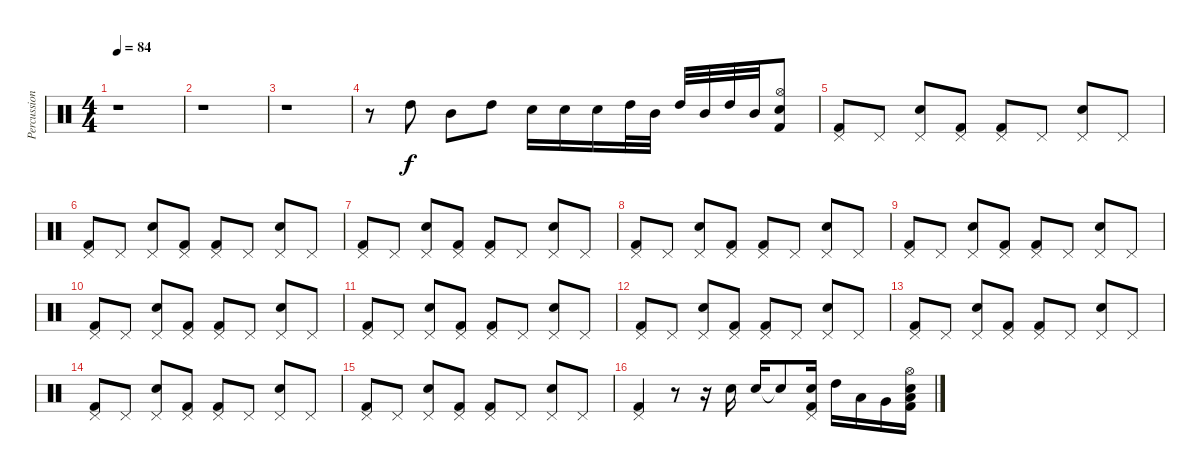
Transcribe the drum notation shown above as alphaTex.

\track ("Percussion" "Percussion") {instrument percussion}
\staff {score}
\articulation defaults
\ts (4 4)
\tempo 84
\clef neutral
\ks c
r.1{dy f} |
r.1 |
r.1 |
r.8 "High Tom (hit)".8 "Mid Tom (hit)".8 "High Tom (hit)".8 "Snare (hit) 2".16 "Snare (hit) 2".16 "Snare (hit) 2".16 "High Tom (hit)".32 "Mid Tom (hit)".32 "High Tom (hit)".32 "Mid Tom (hit)".32 "High Tom (hit)".32 "Mid Tom (hit)".32 ("Hi-Hat (open)" "Snare (hit) 2" "Kick (hit) 2").8 |
("Pedal Hi-Hat (hit)" "Kick (hit) 2").8 "Pedal Hi-Hat (hit)".8 ("Pedal Hi-Hat (hit)" "Snare (hit) 2").8 ("Pedal Hi-Hat (hit)" "Kick (hit) 2").8 ("Pedal Hi-Hat (hit)" "Kick (hit) 2").8 "Pedal Hi-Hat (hit)".8 ("Pedal Hi-Hat (hit)" "Snare (hit) 2").8 "Pedal Hi-Hat (hit)".8 |
("Pedal Hi-Hat (hit)" "Kick (hit) 2").8 "Pedal Hi-Hat (hit)".8 ("Pedal Hi-Hat (hit)" "Snare (hit) 2").8 ("Pedal Hi-Hat (hit)" "Kick (hit) 2").8 ("Pedal Hi-Hat (hit)" "Kick (hit) 2").8 "Pedal Hi-Hat (hit)".8 ("Pedal Hi-Hat (hit)" "Snare (hit) 2").8 "Pedal Hi-Hat (hit)".8 |
("Pedal Hi-Hat (hit)" "Kick (hit) 2").8 "Pedal Hi-Hat (hit)".8 ("Pedal Hi-Hat (hit)" "Snare (hit) 2").8 ("Pedal Hi-Hat (hit)" "Kick (hit) 2").8 ("Pedal Hi-Hat (hit)" "Kick (hit) 2").8 "Pedal Hi-Hat (hit)".8 ("Pedal Hi-Hat (hit)" "Snare (hit) 2").8 "Pedal Hi-Hat (hit)".8 |
("Pedal Hi-Hat (hit)" "Kick (hit) 2").8 "Pedal Hi-Hat (hit)".8 ("Pedal Hi-Hat (hit)" "Snare (hit) 2").8 ("Pedal Hi-Hat (hit)" "Kick (hit) 2").8 ("Pedal Hi-Hat (hit)" "Kick (hit) 2").8 "Pedal Hi-Hat (hit)".8 ("Pedal Hi-Hat (hit)" "Snare (hit) 2").8 "Pedal Hi-Hat (hit)".8 |
("Pedal Hi-Hat (hit)" "Kick (hit) 2").8 "Pedal Hi-Hat (hit)".8 ("Pedal Hi-Hat (hit)" "Snare (hit) 2").8 ("Pedal Hi-Hat (hit)" "Kick (hit) 2").8 ("Pedal Hi-Hat (hit)" "Kick (hit) 2").8 "Pedal Hi-Hat (hit)".8 ("Pedal Hi-Hat (hit)" "Snare (hit) 2").8 "Pedal Hi-Hat (hit)".8 |
("Pedal Hi-Hat (hit)" "Kick (hit) 2").8 "Pedal Hi-Hat (hit)".8 ("Pedal Hi-Hat (hit)" "Snare (hit) 2").8 ("Pedal Hi-Hat (hit)" "Kick (hit) 2").8 ("Pedal Hi-Hat (hit)" "Kick (hit) 2").8 "Pedal Hi-Hat (hit)".8 ("Pedal Hi-Hat (hit)" "Snare (hit) 2").8 "Pedal Hi-Hat (hit)".8 |
("Pedal Hi-Hat (hit)" "Kick (hit) 2").8 "Pedal Hi-Hat (hit)".8 ("Pedal Hi-Hat (hit)" "Snare (hit) 2").8 ("Pedal Hi-Hat (hit)" "Kick (hit) 2").8 ("Pedal Hi-Hat (hit)" "Kick (hit) 2").8 "Pedal Hi-Hat (hit)".8 ("Pedal Hi-Hat (hit)" "Snare (hit) 2").8 "Pedal Hi-Hat (hit)".8 |
("Pedal Hi-Hat (hit)" "Kick (hit) 2").8 "Pedal Hi-Hat (hit)".8 ("Pedal Hi-Hat (hit)" "Snare (hit) 2").8 ("Pedal Hi-Hat (hit)" "Kick (hit) 2").8 ("Pedal Hi-Hat (hit)" "Kick (hit) 2").8 "Pedal Hi-Hat (hit)".8 ("Pedal Hi-Hat (hit)" "Snare (hit) 2").8 "Pedal Hi-Hat (hit)".8 |
("Pedal Hi-Hat (hit)" "Kick (hit) 2").8 "Pedal Hi-Hat (hit)".8 ("Pedal Hi-Hat (hit)" "Snare (hit) 2").8 ("Pedal Hi-Hat (hit)" "Kick (hit) 2").8 ("Pedal Hi-Hat (hit)" "Kick (hit) 2").8 "Pedal Hi-Hat (hit)".8 ("Pedal Hi-Hat (hit)" "Snare (hit) 2").8 "Pedal Hi-Hat (hit)".8 |
("Pedal Hi-Hat (hit)" "Kick (hit) 2").8 "Pedal Hi-Hat (hit)".8 ("Pedal Hi-Hat (hit)" "Snare (hit) 2").8 ("Pedal Hi-Hat (hit)" "Kick (hit) 2").8 ("Pedal Hi-Hat (hit)" "Kick (hit) 2").8 "Pedal Hi-Hat (hit)".8 ("Pedal Hi-Hat (hit)" "Snare (hit) 2").8 "Pedal Hi-Hat (hit)".8 |
("Pedal Hi-Hat (hit)" "Kick (hit) 2").8 "Pedal Hi-Hat (hit)".8 ("Pedal Hi-Hat (hit)" "Snare (hit) 2").8 ("Pedal Hi-Hat (hit)" "Kick (hit) 2").8 ("Pedal Hi-Hat (hit)" "Kick (hit) 2").8 "Pedal Hi-Hat (hit)".8 ("Pedal Hi-Hat (hit)" "Snare (hit) 2").8 "Pedal Hi-Hat (hit)".8 |
("Pedal Hi-Hat (hit)" "Kick (hit) 2").4 r.8 r.16 "Snare (hit) 2".16 "Snare (hit) 2".16 "Snare (hit)"{t}.8 ("Pedal Hi-Hat (hit)" "Snare (hit) 2" "Kick (hit) 2").16 "High Tom (hit)".16 "Low Tom (hit)".16 "Very Low Tom (hit)".16 ("Hi-Hat (open)" "Snare (hit) 2" "Low Tom (hit)" "Kick (hit) 2").16
